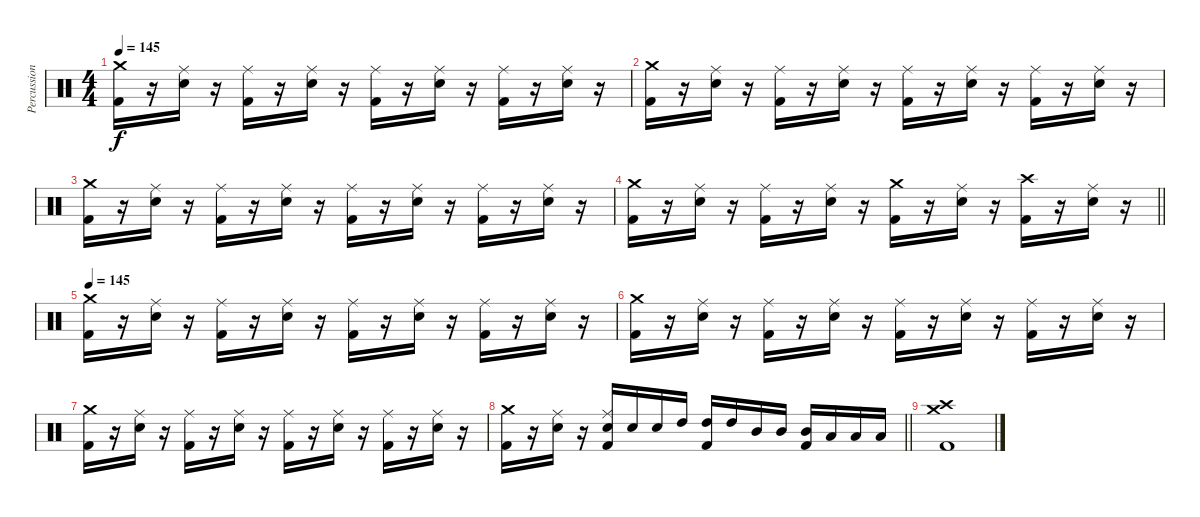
\track ("Percussion" "Percussion") {instrument percussion}
\staff {score}
\articulation defaults
\ts (4 4)
\tempo 145
\clef neutral
\ks c
("Crash medium (hit)" "Kick (hit) 2").16{dy f} r.16 ("Ride (middle)" "Snare (hit) 2").16 r.16 ("Ride (middle)" "Kick (hit) 2").16 r.16 ("Ride (middle)" "Snare (hit) 2").16 r.16 ("Ride (middle)" "Kick (hit) 2").16 r.16 ("Ride (middle)" "Snare (hit) 2").16 r.16 ("Ride (middle)" "Kick (hit) 2").16 r.16 ("Ride (middle)" "Snare (hit) 2").16 r.16 |
("Crash medium (hit)" "Kick (hit) 2").16 r.16 ("Ride (middle)" "Snare (hit) 2").16 r.16 ("Ride (middle)" "Kick (hit) 2").16 r.16 ("Ride (middle)" "Snare (hit) 2").16 r.16 ("Ride (middle)" "Kick (hit) 2").16 r.16 ("Ride (middle)" "Snare (hit) 2").16 r.16 ("Ride (middle)" "Kick (hit) 2").16 r.16 ("Ride (middle)" "Snare (hit) 2").16 r.16 |
("Crash medium (hit)" "Kick (hit) 2").16 r.16 ("Ride (middle)" "Snare (hit) 2").16 r.16 ("Ride (middle)" "Kick (hit) 2").16 r.16 ("Ride (middle)" "Snare (hit) 2").16 r.16 ("Ride (middle)" "Kick (hit) 2").16 r.16 ("Ride (middle)" "Snare (hit) 2").16 r.16 ("Ride (middle)" "Kick (hit) 2").16 r.16 ("Ride (middle)" "Snare (hit) 2").16 r.16 |
\barLineRight lightlight
("Crash medium (hit)" "Kick (hit) 2").16 r.16 ("Ride (middle)" "Snare (hit) 2").16 r.16 ("Ride (middle)" "Kick (hit) 2").16 r.16 ("Ride (middle)" "Snare (hit) 2").16 r.16 ("Crash medium (hit)" "Kick (hit) 2").16 r.16 ("Ride (middle)" "Snare (hit) 2").16 r.16 ("Crash high (hit)" "Kick (hit) 2").16 r.16 ("Ride (middle)" "Snare (hit) 2").16 r.16 |
\tempo 145
("Crash medium (hit)" "Kick (hit) 2").16 r.16 ("Ride (middle)" "Snare (hit) 2").16 r.16 ("Ride (middle)" "Kick (hit) 2").16 r.16 ("Ride (middle)" "Snare (hit) 2").16 r.16 ("Ride (middle)" "Kick (hit) 2").16 r.16 ("Ride (middle)" "Snare (hit) 2").16 r.16 ("Ride (middle)" "Kick (hit) 2").16 r.16 ("Ride (middle)" "Snare (hit) 2").16 r.16 |
("Crash medium (hit)" "Kick (hit) 2").16 r.16 ("Ride (middle)" "Snare (hit) 2").16 r.16 ("Ride (middle)" "Kick (hit) 2").16 r.16 ("Ride (middle)" "Snare (hit) 2").16 r.16 ("Ride (middle)" "Kick (hit) 2").16 r.16 ("Ride (middle)" "Snare (hit) 2").16 r.16 ("Ride (middle)" "Kick (hit) 2").16 r.16 ("Ride (middle)" "Snare (hit) 2").16 r.16 |
("Crash medium (hit)" "Kick (hit) 2").16 r.16 ("Ride (middle)" "Snare (hit) 2").16 r.16 ("Ride (middle)" "Kick (hit) 2").16 r.16 ("Ride (middle)" "Snare (hit) 2").16 r.16 ("Ride (middle)" "Kick (hit) 2").16 r.16 ("Ride (middle)" "Snare (hit) 2").16 r.16 ("Ride (middle)" "Kick (hit) 2").16 r.16 ("Ride (middle)" "Snare (hit) 2").16 r.16 |
\barLineRight lightlight
("Crash medium (hit)" "Kick (hit) 2").16 r.16 ("Ride (middle)" "Snare (hit) 2").16 r.16 ("Ride (middle)" "Snare (hit) 2" "Kick (hit) 2").16 "Snare (hit) 2".16 "Snare (hit) 2".16 "High Tom (hit)".16 ("High Tom (hit)" "Kick (hit) 2").16 "High Tom (hit)".16 "Mid Tom (hit)".16 "Mid Tom (hit)".16 ("Mid Tom (hit)" "Kick (hit) 2").16 "Low Tom (hit)".16 "Low Tom (hit)".16 "Low Tom (hit)".16 |
("Crash medium (hit)" "Crash high (hit)" "Kick (hit) 2").1
